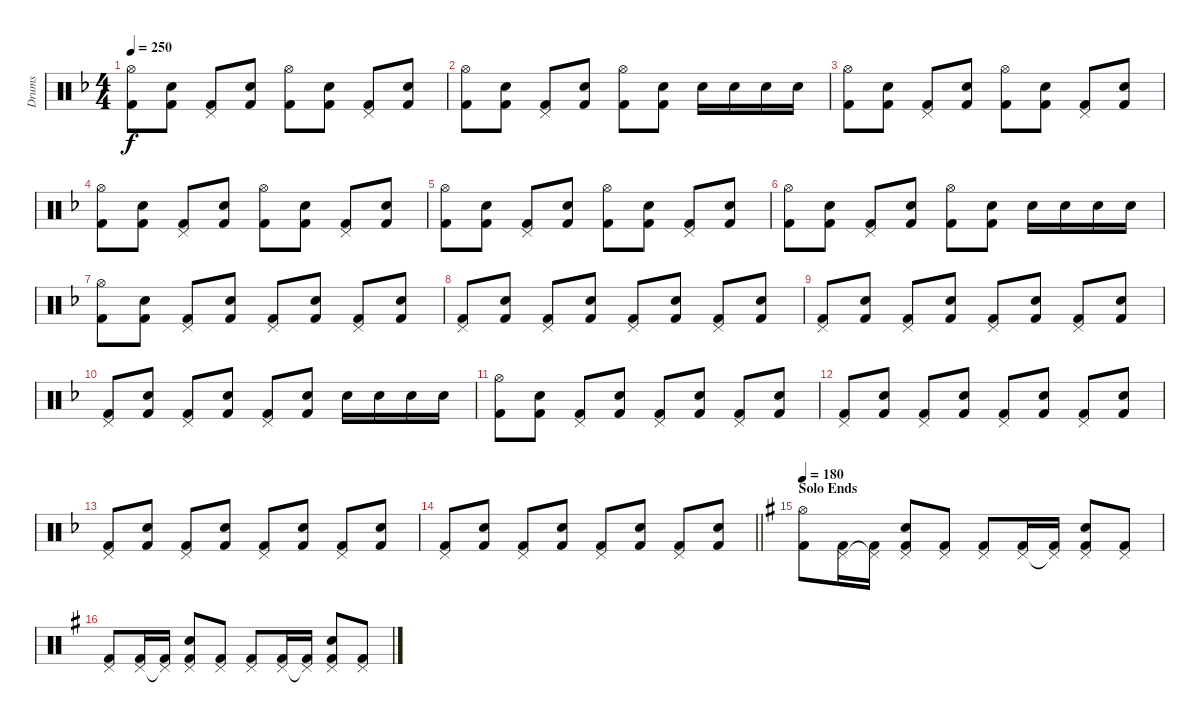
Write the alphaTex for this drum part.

\track ("Drums" "Drums") {instrument percussion}
\staff {score}
\articulation defaults
\ts (4 4)
\tempo 250
\clef neutral
\ks f
("Hi-Hat (open)" "Kick (hit) 2").8{dy f} ("Snare (hit) 2" "Kick (hit) 2").8 ("Pedal Hi-Hat (hit)" "Kick (hit) 2").8 ("Snare (hit) 2" "Kick (hit) 2").8 ("Hi-Hat (open)" "Kick (hit) 2").8 ("Snare (hit) 2" "Kick (hit) 2").8 ("Pedal Hi-Hat (hit)" "Kick (hit) 2").8 ("Snare (hit) 2" "Kick (hit) 2").8 |
("Hi-Hat (open)" "Kick (hit) 2").8 ("Snare (hit) 2" "Kick (hit) 2").8 ("Pedal Hi-Hat (hit)" "Kick (hit) 2").8 ("Snare (hit) 2" "Kick (hit) 2").8 ("Hi-Hat (open)" "Kick (hit) 2").8 ("Snare (hit) 2" "Kick (hit) 2").8 "Snare (hit) 2".16 "Snare (hit) 2".16 "Snare (hit) 2".16 "Snare (hit) 2".16 |
("Hi-Hat (open)" "Kick (hit) 2").8 ("Snare (hit) 2" "Kick (hit) 2").8 ("Pedal Hi-Hat (hit)" "Kick (hit) 2").8 ("Snare (hit) 2" "Kick (hit) 2").8 ("Hi-Hat (open)" "Kick (hit) 2").8 ("Snare (hit) 2" "Kick (hit) 2").8 ("Pedal Hi-Hat (hit)" "Kick (hit) 2").8 ("Snare (hit) 2" "Kick (hit) 2").8 |
("Hi-Hat (open)" "Kick (hit) 2").8 ("Snare (hit) 2" "Kick (hit) 2").8 ("Pedal Hi-Hat (hit)" "Kick (hit) 2").8 ("Snare (hit) 2" "Kick (hit) 2").8 ("Hi-Hat (open)" "Kick (hit) 2").8 ("Snare (hit) 2" "Kick (hit) 2").8 ("Pedal Hi-Hat (hit)" "Kick (hit) 2").8 ("Snare (hit) 2" "Kick (hit) 2").8 |
("Hi-Hat (open)" "Kick (hit) 2").8 ("Snare (hit) 2" "Kick (hit) 2").8 ("Pedal Hi-Hat (hit)" "Kick (hit) 2").8 ("Snare (hit) 2" "Kick (hit) 2").8 ("Hi-Hat (open)" "Kick (hit) 2").8 ("Snare (hit) 2" "Kick (hit) 2").8 ("Pedal Hi-Hat (hit)" "Kick (hit) 2").8 ("Snare (hit) 2" "Kick (hit) 2").8 |
("Hi-Hat (open)" "Kick (hit) 2").8 ("Snare (hit) 2" "Kick (hit) 2").8 ("Pedal Hi-Hat (hit)" "Kick (hit) 2").8 ("Snare (hit) 2" "Kick (hit) 2").8 ("Hi-Hat (open)" "Kick (hit) 2").8 ("Snare (hit) 2" "Kick (hit) 2").8 "Snare (hit) 2".16 "Snare (hit) 2".16 "Snare (hit) 2".16 "Snare (hit) 2".16 |
("Hi-Hat (open)" "Kick (hit) 2").8 ("Snare (hit) 2" "Kick (hit) 2").8 ("Pedal Hi-Hat (hit)" "Kick (hit) 2").8 ("Snare (hit) 2" "Kick (hit) 2").8 ("Pedal Hi-Hat (hit)" "Kick (hit) 2").8 ("Snare (hit) 2" "Kick (hit) 2").8 ("Pedal Hi-Hat (hit)" "Kick (hit) 2").8 ("Snare (hit) 2" "Kick (hit) 2").8 |
("Pedal Hi-Hat (hit)" "Kick (hit) 2").8 ("Snare (hit) 2" "Kick (hit) 2").8 ("Pedal Hi-Hat (hit)" "Kick (hit) 2").8 ("Snare (hit) 2" "Kick (hit) 2").8 ("Pedal Hi-Hat (hit)" "Kick (hit) 2").8 ("Snare (hit) 2" "Kick (hit) 2").8 ("Pedal Hi-Hat (hit)" "Kick (hit) 2").8 ("Snare (hit) 2" "Kick (hit) 2").8 |
("Pedal Hi-Hat (hit)" "Kick (hit) 2").8 ("Snare (hit) 2" "Kick (hit) 2").8 ("Pedal Hi-Hat (hit)" "Kick (hit) 2").8 ("Snare (hit) 2" "Kick (hit) 2").8 ("Pedal Hi-Hat (hit)" "Kick (hit) 2").8 ("Snare (hit) 2" "Kick (hit) 2").8 ("Pedal Hi-Hat (hit)" "Kick (hit) 2").8 ("Snare (hit) 2" "Kick (hit) 2").8 |
("Pedal Hi-Hat (hit)" "Kick (hit) 2").8 ("Snare (hit) 2" "Kick (hit) 2").8 ("Pedal Hi-Hat (hit)" "Kick (hit) 2").8 ("Snare (hit) 2" "Kick (hit) 2").8 ("Pedal Hi-Hat (hit)" "Kick (hit) 2").8 ("Snare (hit) 2" "Kick (hit) 2").8 "Snare (hit) 2".16 "Snare (hit) 2".16 "Snare (hit) 2".16 "Snare (hit) 2".16 |
("Hi-Hat (open)" "Kick (hit) 2").8 ("Snare (hit) 2" "Kick (hit) 2").8 ("Pedal Hi-Hat (hit)" "Kick (hit) 2").8 ("Snare (hit) 2" "Kick (hit) 2").8 ("Pedal Hi-Hat (hit)" "Kick (hit) 2").8 ("Snare (hit) 2" "Kick (hit) 2").8 ("Pedal Hi-Hat (hit)" "Kick (hit) 2").8 ("Snare (hit) 2" "Kick (hit) 2").8 |
("Pedal Hi-Hat (hit)" "Kick (hit) 2").8 ("Snare (hit) 2" "Kick (hit) 2").8 ("Pedal Hi-Hat (hit)" "Kick (hit) 2").8 ("Snare (hit) 2" "Kick (hit) 2").8 ("Pedal Hi-Hat (hit)" "Kick (hit) 2").8 ("Snare (hit) 2" "Kick (hit) 2").8 ("Pedal Hi-Hat (hit)" "Kick (hit) 2").8 ("Snare (hit) 2" "Kick (hit) 2").8 |
("Pedal Hi-Hat (hit)" "Kick (hit) 2").8 ("Snare (hit) 2" "Kick (hit) 2").8 ("Pedal Hi-Hat (hit)" "Kick (hit) 2").8 ("Snare (hit) 2" "Kick (hit) 2").8 ("Pedal Hi-Hat (hit)" "Kick (hit) 2").8 ("Snare (hit) 2" "Kick (hit) 2").8 ("Pedal Hi-Hat (hit)" "Kick (hit) 2").8 ("Snare (hit) 2" "Kick (hit) 2").8 |
\barLineRight lightlight
("Pedal Hi-Hat (hit)" "Kick (hit) 2").8 ("Snare (hit) 2" "Kick (hit) 2").8 ("Pedal Hi-Hat (hit)" "Kick (hit) 2").8 ("Snare (hit) 2" "Kick (hit) 2").8 ("Pedal Hi-Hat (hit)" "Kick (hit) 2").8 ("Snare (hit) 2" "Kick (hit) 2").8 ("Pedal Hi-Hat (hit)" "Kick (hit) 2").8 ("Snare (hit) 2" "Kick (hit) 2").8 |
\section ("" "Solo Ends")
\tempo 180
\ks g
("Hi-Hat (open)" "Kick (hit) 2").8 ("Pedal Hi-Hat (hit)" "Kick (hit) 2").16 ("Pedal Hi-Hat (hit)"{t} "Kick (hit) 2").16 ("Pedal Hi-Hat (hit)" "Snare (hit) 2" "Kick (hit) 2").8 ("Pedal Hi-Hat (hit)" "Kick (hit) 2").8 ("Pedal Hi-Hat (hit)" "Kick (hit) 2").8 ("Pedal Hi-Hat (hit)" "Kick (hit) 2").16 ("Pedal Hi-Hat (hit)"{t} "Kick (hit) 2").16 ("Pedal Hi-Hat (hit)" "Snare (hit) 2" "Kick (hit) 2").8 ("Pedal Hi-Hat (hit)" "Kick (hit) 2").8 |
("Pedal Hi-Hat (hit)" "Kick (hit) 2").8 ("Pedal Hi-Hat (hit)" "Kick (hit) 2").16 ("Pedal Hi-Hat (hit)"{t} "Kick (hit) 2").16 ("Pedal Hi-Hat (hit)" "Snare (hit) 2" "Kick (hit) 2").8 ("Pedal Hi-Hat (hit)" "Kick (hit) 2").8 ("Pedal Hi-Hat (hit)" "Kick (hit) 2").8 ("Pedal Hi-Hat (hit)" "Kick (hit) 2").16 ("Pedal Hi-Hat (hit)"{t} "Kick (hit) 2").16 ("Pedal Hi-Hat (hit)" "Snare (hit) 2" "Kick (hit) 2").8 ("Pedal Hi-Hat (hit)" "Kick (hit) 2").8
